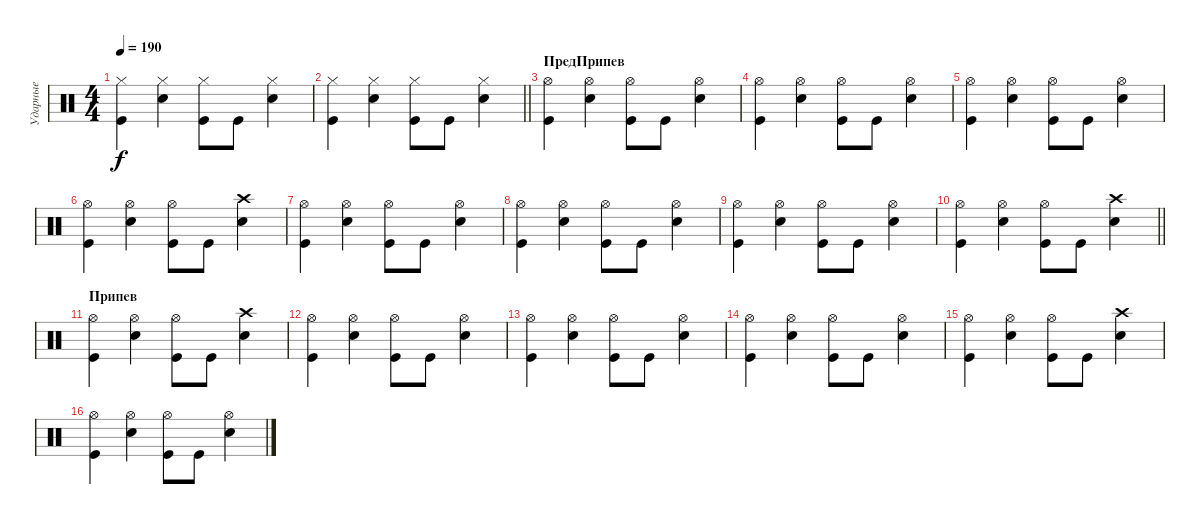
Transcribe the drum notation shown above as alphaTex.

\track ("Ударные" "Ударные") {instrument percussion}
\staff {score}
\articulation defaults
\ts (4 4)
\tempo 190
\clef neutral
\ks c
("Hi-Hat (closed)" "Kick (hit)").4{dy f} ("Hi-Hat (closed)" "Snare (hit) 2").4 ("Hi-Hat (closed)" "Kick (hit)").8 "Kick (hit)".8 ("Hi-Hat (closed)" "Snare (hit) 2").4 |
\barLineRight lightlight
("Hi-Hat (closed)" "Kick (hit)").4 ("Hi-Hat (closed)" "Snare (hit) 2").4 ("Hi-Hat (closed)" "Kick (hit)").8 "Kick (hit)".8 ("Hi-Hat (closed)" "Snare (hit) 2").4 |
\section ("" "ПредПрипев")
("Hi-Hat (open)" "Kick (hit)").4 ("Hi-Hat (open)" "Snare (hit) 2").4 ("Hi-Hat (open)" "Kick (hit)").8 "Kick (hit)".8 ("Hi-Hat (open)" "Snare (hit) 2").4 |
("Hi-Hat (open)" "Kick (hit)").4 ("Hi-Hat (open)" "Snare (hit) 2").4 ("Hi-Hat (open)" "Kick (hit)").8 "Kick (hit)".8 ("Hi-Hat (open)" "Snare (hit) 2").4 |
("Hi-Hat (open)" "Kick (hit)").4 ("Hi-Hat (open)" "Snare (hit) 2").4 ("Hi-Hat (open)" "Kick (hit)").8 "Kick (hit)".8 ("Hi-Hat (open)" "Snare (hit) 2").4 |
("Hi-Hat (open)" "Kick (hit)").4 ("Hi-Hat (open)" "Snare (hit) 2").4 ("Hi-Hat (open)" "Kick (hit)").8 "Kick (hit)".8 ("Crash high (hit)" "Snare (hit) 2").4 |
("Hi-Hat (open)" "Kick (hit)").4 ("Hi-Hat (open)" "Snare (hit) 2").4 ("Hi-Hat (open)" "Kick (hit)").8 "Kick (hit)".8 ("Hi-Hat (open)" "Snare (hit) 2").4 |
("Hi-Hat (open)" "Kick (hit)").4 ("Hi-Hat (open)" "Snare (hit) 2").4 ("Hi-Hat (open)" "Kick (hit)").8 "Kick (hit)".8 ("Hi-Hat (open)" "Snare (hit) 2").4 |
("Hi-Hat (open)" "Kick (hit)").4 ("Hi-Hat (open)" "Snare (hit) 2").4 ("Hi-Hat (open)" "Kick (hit)").8 "Kick (hit)".8 ("Hi-Hat (open)" "Snare (hit) 2").4 |
\barLineRight lightlight
("Hi-Hat (open)" "Kick (hit)").4 ("Hi-Hat (open)" "Snare (hit) 2").4 ("Hi-Hat (open)" "Kick (hit)").8 "Kick (hit)".8 ("Crash high (hit)" "Snare (hit) 2").4 |
\section ("" "Припев")
("Hi-Hat (open)" "Kick (hit)").4 ("Hi-Hat (open)" "Snare (hit) 2").4 ("Hi-Hat (open)" "Kick (hit)").8 "Kick (hit)".8 ("Crash high (hit)" "Snare (hit) 2").4 |
("Hi-Hat (open)" "Kick (hit)").4 ("Hi-Hat (open)" "Snare (hit) 2").4 ("Hi-Hat (open)" "Kick (hit)").8 "Kick (hit)".8 ("Hi-Hat (open)" "Snare (hit) 2").4 |
("Hi-Hat (open)" "Kick (hit)").4 ("Hi-Hat (open)" "Snare (hit) 2").4 ("Hi-Hat (open)" "Kick (hit)").8 "Kick (hit)".8 ("Hi-Hat (open)" "Snare (hit) 2").4 |
("Hi-Hat (open)" "Kick (hit)").4 ("Hi-Hat (open)" "Snare (hit) 2").4 ("Hi-Hat (open)" "Kick (hit)").8 "Kick (hit)".8 ("Hi-Hat (open)" "Snare (hit) 2").4 |
("Hi-Hat (open)" "Kick (hit)").4 ("Hi-Hat (open)" "Snare (hit) 2").4 ("Hi-Hat (open)" "Kick (hit)").8 "Kick (hit)".8 ("Crash high (hit)" "Snare (hit) 2").4 |
("Hi-Hat (open)" "Kick (hit)").4 ("Hi-Hat (open)" "Snare (hit) 2").4 ("Hi-Hat (open)" "Kick (hit)").8 "Kick (hit)".8 ("Hi-Hat (open)" "Snare (hit) 2").4
